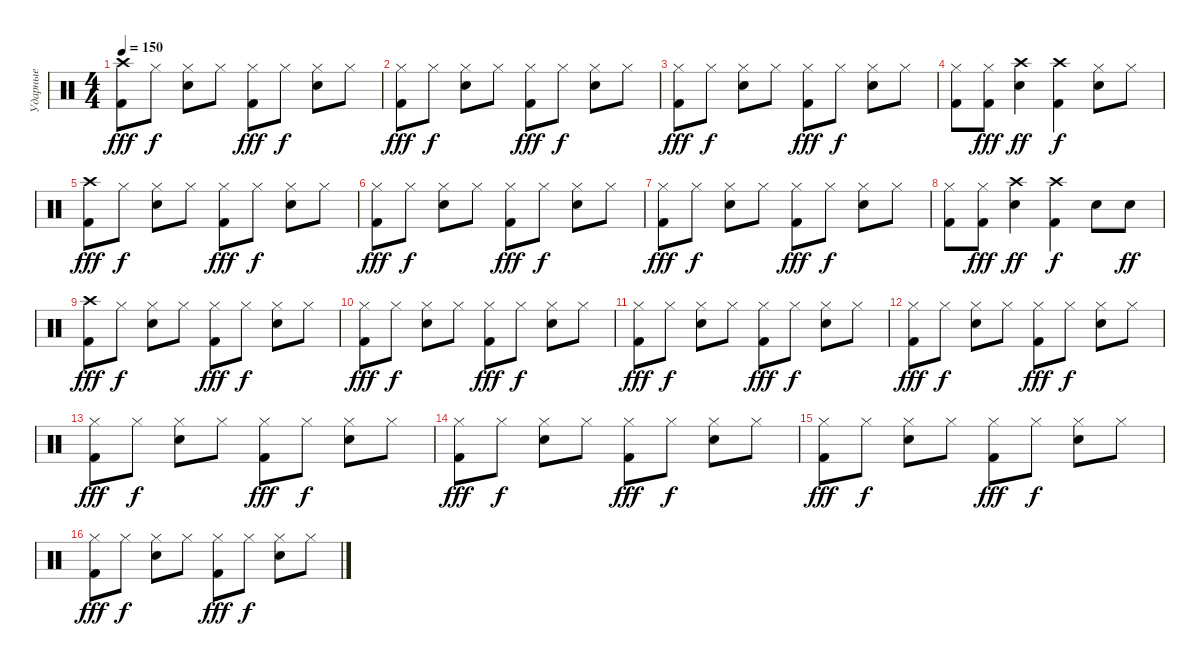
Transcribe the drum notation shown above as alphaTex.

\track ("Ударные" "Ударные") {instrument percussion}
\staff {score}
\articulation defaults
\ts (4 4)
\tempo 150
\clef neutral
\ks c
("Kick (hit) 2" "Crash high (hit)").8{dy fff} "Hi-Hat (closed)".8{dy f} ("Snare (hit) 2" "Hi-Hat (closed)").8 "Hi-Hat (closed)".8 ("Kick (hit) 2" "Hi-Hat (closed)").8{dy fff} "Hi-Hat (closed)".8{dy f} ("Snare (hit) 2" "Hi-Hat (closed)").8 "Hi-Hat (closed)".8 |
("Kick (hit) 2" "Hi-Hat (closed)").8{dy fff} "Hi-Hat (closed)".8{dy f} ("Snare (hit) 2" "Hi-Hat (closed)").8 "Hi-Hat (closed)".8 ("Kick (hit) 2" "Hi-Hat (closed)").8{dy fff} "Hi-Hat (closed)".8{dy f} ("Snare (hit) 2" "Hi-Hat (closed)").8 "Hi-Hat (closed)".8 |
("Kick (hit) 2" "Hi-Hat (closed)").8{dy fff} "Hi-Hat (closed)".8{dy f} ("Snare (hit) 2" "Hi-Hat (closed)").8 "Hi-Hat (closed)".8 ("Kick (hit) 2" "Hi-Hat (closed)").8{dy fff} "Hi-Hat (closed)".8{dy f} ("Snare (hit) 2" "Hi-Hat (closed)").8 "Hi-Hat (closed)".8 |
("Kick (hit) 2" "Hi-Hat (closed)").8 ("Kick (hit) 2" "Hi-Hat (closed)").8{dy fff} ("Snare (hit) 2" "Crash high (hit)").4{dy ff} ("Kick (hit) 2" "Crash high (hit)").4{dy f} ("Snare (hit) 2" "Hi-Hat (closed)").8 "Hi-Hat (closed)".8 |
("Kick (hit) 2" "Crash high (hit)").8{dy fff} "Hi-Hat (closed)".8{dy f} ("Snare (hit) 2" "Hi-Hat (closed)").8 "Hi-Hat (closed)".8 ("Kick (hit) 2" "Hi-Hat (closed)").8{dy fff} "Hi-Hat (closed)".8{dy f} ("Snare (hit) 2" "Hi-Hat (closed)").8 "Hi-Hat (closed)".8 |
("Kick (hit) 2" "Hi-Hat (closed)").8{dy fff} "Hi-Hat (closed)".8{dy f} ("Snare (hit) 2" "Hi-Hat (closed)").8 "Hi-Hat (closed)".8 ("Kick (hit) 2" "Hi-Hat (closed)").8{dy fff} "Hi-Hat (closed)".8{dy f} ("Snare (hit) 2" "Hi-Hat (closed)").8 "Hi-Hat (closed)".8 |
("Kick (hit) 2" "Hi-Hat (closed)").8{dy fff} "Hi-Hat (closed)".8{dy f} ("Snare (hit) 2" "Hi-Hat (closed)").8 "Hi-Hat (closed)".8 ("Kick (hit) 2" "Hi-Hat (closed)").8{dy fff} "Hi-Hat (closed)".8{dy f} ("Snare (hit) 2" "Hi-Hat (closed)").8 "Hi-Hat (closed)".8 |
("Kick (hit) 2" "Hi-Hat (closed)").8 ("Kick (hit) 2" "Hi-Hat (closed)").8{dy fff} ("Snare (hit) 2" "Crash high (hit)").4{dy ff} ("Kick (hit) 2" "Crash high (hit)").4{dy f} "Snare (hit) 2".8 "Snare (hit) 2".8{dy ff} |
("Kick (hit) 2" "Crash high (hit)").8{dy fff} "Hi-Hat (closed)".8{dy f} ("Snare (hit) 2" "Hi-Hat (closed)").8 "Hi-Hat (closed)".8 ("Kick (hit) 2" "Hi-Hat (closed)").8{dy fff} "Hi-Hat (closed)".8{dy f} ("Snare (hit) 2" "Hi-Hat (closed)").8 "Hi-Hat (closed)".8 |
("Kick (hit) 2" "Hi-Hat (closed)").8{dy fff} "Hi-Hat (closed)".8{dy f} ("Snare (hit) 2" "Hi-Hat (closed)").8 "Hi-Hat (closed)".8 ("Kick (hit) 2" "Hi-Hat (closed)").8{dy fff} "Hi-Hat (closed)".8{dy f} ("Snare (hit) 2" "Hi-Hat (closed)").8 "Hi-Hat (closed)".8 |
("Kick (hit) 2" "Hi-Hat (closed)").8{dy fff} "Hi-Hat (closed)".8{dy f} ("Snare (hit) 2" "Hi-Hat (closed)").8 "Hi-Hat (closed)".8 ("Kick (hit) 2" "Hi-Hat (closed)").8{dy fff} "Hi-Hat (closed)".8{dy f} ("Snare (hit) 2" "Hi-Hat (closed)").8 "Hi-Hat (closed)".8 |
("Kick (hit) 2" "Hi-Hat (closed)").8{dy fff} "Hi-Hat (closed)".8{dy f} ("Snare (hit) 2" "Hi-Hat (closed)").8 "Hi-Hat (closed)".8 ("Kick (hit) 2" "Hi-Hat (closed)").8{dy fff} "Hi-Hat (closed)".8{dy f} ("Snare (hit) 2" "Hi-Hat (closed)").8 "Hi-Hat (closed)".8 |
("Kick (hit) 2" "Hi-Hat (closed)").8{dy fff} "Hi-Hat (closed)".8{dy f} ("Snare (hit) 2" "Hi-Hat (closed)").8 "Hi-Hat (closed)".8 ("Kick (hit) 2" "Hi-Hat (closed)").8{dy fff} "Hi-Hat (closed)".8{dy f} ("Snare (hit) 2" "Hi-Hat (closed)").8 "Hi-Hat (closed)".8 |
("Kick (hit) 2" "Hi-Hat (closed)").8{dy fff} "Hi-Hat (closed)".8{dy f} ("Snare (hit) 2" "Hi-Hat (closed)").8 "Hi-Hat (closed)".8 ("Kick (hit) 2" "Hi-Hat (closed)").8{dy fff} "Hi-Hat (closed)".8{dy f} ("Snare (hit) 2" "Hi-Hat (closed)").8 "Hi-Hat (closed)".8 |
("Kick (hit) 2" "Hi-Hat (closed)").8{dy fff} "Hi-Hat (closed)".8{dy f} ("Snare (hit) 2" "Hi-Hat (closed)").8 "Hi-Hat (closed)".8 ("Kick (hit) 2" "Hi-Hat (closed)").8{dy fff} "Hi-Hat (closed)".8{dy f} ("Snare (hit) 2" "Hi-Hat (closed)").8 "Hi-Hat (closed)".8 |
("Kick (hit) 2" "Hi-Hat (closed)").8{dy fff} "Hi-Hat (closed)".8{dy f} ("Snare (hit) 2" "Hi-Hat (closed)").8 "Hi-Hat (closed)".8 ("Kick (hit) 2" "Hi-Hat (closed)").8{dy fff} "Hi-Hat (closed)".8{dy f} ("Snare (hit) 2" "Hi-Hat (closed)").8 "Hi-Hat (closed)".8
